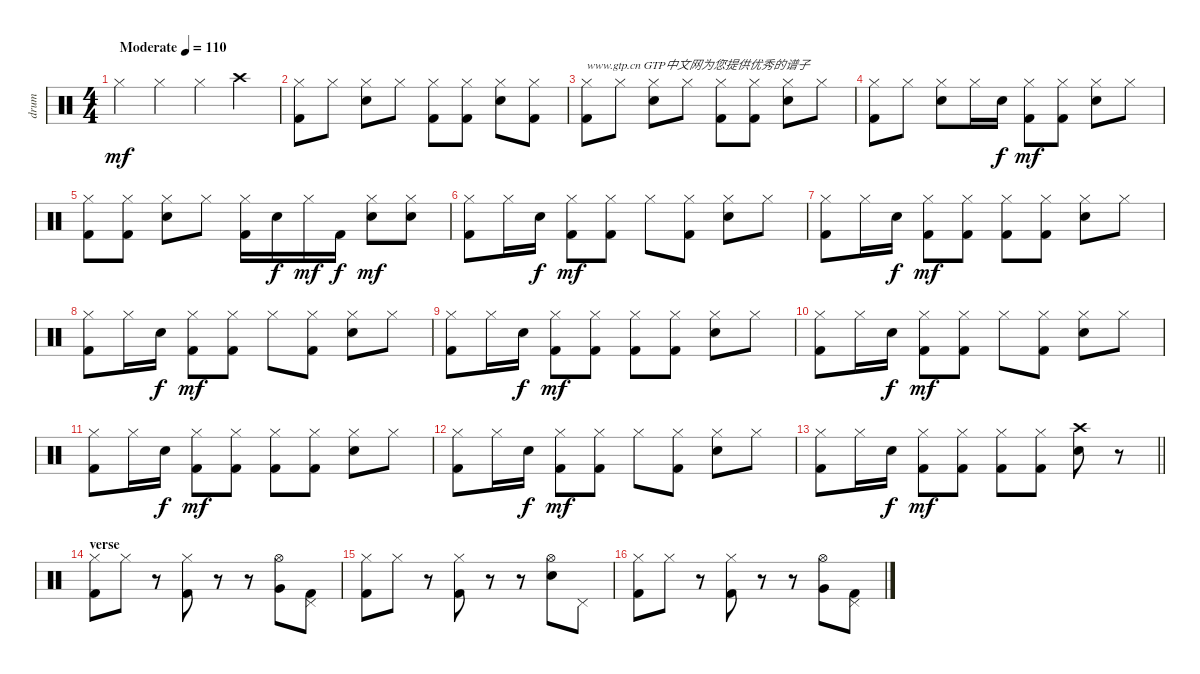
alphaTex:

\track ("drum" "drum") {instrument percussion}
\staff
\articulation defaults
\ts (4 4)
\tempo (110 "Moderate")
\clef neutral
\ks c "Hi-Hat (closed)".4{dy mf} "Hi-Hat (closed)".4 "Hi-Hat (closed)".4 "Crash high (hit)".4
|
("Hi-Hat (closed)" "Kick (hit) 2").8 "Hi-Hat (closed)".8 ("Hi-Hat (closed)" "Electric Snare (hit)").8 "Hi-Hat (closed)".8 ("Hi-Hat (closed)" "Kick (hit) 2").8 ("Hi-Hat (closed)" "Kick (hit) 2").8 ("Hi-Hat (closed)" "Electric Snare (hit)").8 ("Hi-Hat (closed)" "Kick (hit) 2").8 |
("Hi-Hat (closed)" "Kick (hit) 2").8{txt "www.gtp.cn GTP中文网为您提供优秀的谱子"} "Hi-Hat (closed)".8 ("Hi-Hat (closed)" "Electric Snare (hit)").8 "Hi-Hat (closed)".8 ("Hi-Hat (closed)" "Kick (hit) 2").8 ("Hi-Hat (closed)" "Kick (hit) 2").8 ("Hi-Hat (closed)" "Electric Snare (hit)").8 "Hi-Hat (closed)".8 |
("Hi-Hat (closed)" "Kick (hit) 2").8 "Hi-Hat (closed)".8 ("Hi-Hat (closed)" "Electric Snare (hit)").8 "Hi-Hat (closed)".16 "Electric Snare (hit)".16{dy f} ("Hi-Hat (closed)" "Kick (hit) 2").8{dy mf} ("Hi-Hat (closed)" "Kick (hit) 2").8 ("Hi-Hat (closed)" "Electric Snare (hit)").8 "Hi-Hat (closed)".8 |
("Hi-Hat (closed)" "Kick (hit) 2").8 ("Hi-Hat (closed)" "Kick (hit) 2").8 ("Hi-Hat (closed)" "Electric Snare (hit)").8 "Hi-Hat (closed)".8 ("Hi-Hat (closed)" "Kick (hit) 2").16 "Electric Snare (hit)".16{dy f} "Hi-Hat (closed)".16{dy mf} "Kick (hit) 2".16{dy f} ("Hi-Hat (closed)" "Electric Snare (hit)").8{dy mf} ("Hi-Hat (closed)" "Electric Snare (hit)").8 |
("Hi-Hat (closed)" "Kick (hit) 2").8 "Hi-Hat (closed)".16 "Electric Snare (hit)".16{dy f} ("Hi-Hat (closed)" "Kick (hit) 2").8{dy mf} ("Hi-Hat (closed)" "Kick (hit) 2").8 "Hi-Hat (closed)".8 ("Hi-Hat (closed)" "Kick (hit) 2").8 ("Hi-Hat (closed)" "Electric Snare (hit)").8 "Hi-Hat (closed)".8 |
("Hi-Hat (closed)" "Kick (hit) 2").8 "Hi-Hat (closed)".16 "Electric Snare (hit)".16{dy f} ("Hi-Hat (closed)" "Kick (hit) 2").8{dy mf} ("Hi-Hat (closed)" "Kick (hit) 2").8 ("Hi-Hat (closed)" "Kick (hit) 2").8 ("Hi-Hat (closed)" "Kick (hit) 2").8 ("Hi-Hat (closed)" "Electric Snare (hit)").8 "Hi-Hat (closed)".8 |
("Hi-Hat (closed)" "Kick (hit) 2").8 "Hi-Hat (closed)".16 "Electric Snare (hit)".16{dy f} ("Hi-Hat (closed)" "Kick (hit) 2").8{dy mf} ("Hi-Hat (closed)" "Kick (hit) 2").8 "Hi-Hat (closed)".8 ("Hi-Hat (closed)" "Kick (hit) 2").8 ("Hi-Hat (closed)" "Electric Snare (hit)").8 "Hi-Hat (closed)".8 |
("Hi-Hat (closed)" "Kick (hit) 2").8 "Hi-Hat (closed)".16 "Electric Snare (hit)".16{dy f} ("Hi-Hat (closed)" "Kick (hit) 2").8{dy mf} ("Hi-Hat (closed)" "Kick (hit) 2").8 ("Hi-Hat (closed)" "Kick (hit) 2").8 ("Hi-Hat (closed)" "Kick (hit) 2").8 ("Hi-Hat (closed)" "Electric Snare (hit)").8 "Hi-Hat (closed)".8 |
("Hi-Hat (closed)" "Kick (hit) 2").8 "Hi-Hat (closed)".16 "Electric Snare (hit)".16{dy f} ("Hi-Hat (closed)" "Kick (hit) 2").8{dy mf} ("Hi-Hat (closed)" "Kick (hit) 2").8 "Hi-Hat (closed)".8 ("Hi-Hat (closed)" "Kick (hit) 2").8 ("Hi-Hat (closed)" "Electric Snare (hit)").8 "Hi-Hat (closed)".8 |
("Hi-Hat (closed)" "Kick (hit) 2").8 "Hi-Hat (closed)".16 "Electric Snare (hit)".16{dy f} ("Hi-Hat (closed)" "Kick (hit) 2").8{dy mf} ("Hi-Hat (closed)" "Kick (hit) 2").8 ("Hi-Hat (closed)" "Kick (hit) 2").8 ("Hi-Hat (closed)" "Kick (hit) 2").8 ("Hi-Hat (closed)" "Electric Snare (hit)").8 "Hi-Hat (closed)".8 |
("Hi-Hat (closed)" "Kick (hit) 2").8 "Hi-Hat (closed)".16 "Electric Snare (hit)".16{dy f} ("Hi-Hat (closed)" "Kick (hit) 2").8{dy mf} ("Hi-Hat (closed)" "Kick (hit) 2").8 "Hi-Hat (closed)".8 ("Hi-Hat (closed)" "Kick (hit) 2").8 ("Hi-Hat (closed)" "Electric Snare (hit)").8 "Hi-Hat (closed)".8 |
\barLineRight lightlight
("Hi-Hat (closed)" "Kick (hit) 2").8 "Hi-Hat (closed)".16 "Electric Snare (hit)".16{dy f} ("Hi-Hat (closed)" "Kick (hit) 2").8{dy mf} ("Hi-Hat (closed)" "Kick (hit) 2").8 ("Hi-Hat (closed)" "Kick (hit) 2").8 ("Hi-Hat (closed)" "Kick (hit) 2").8 ("Crash high (hit)" "Electric Snare (hit)").8 r.8 |
\section ("" "verse")
("Hi-Hat (closed)" "Kick (hit) 2").8 "Hi-Hat (closed)".8 r.8 ("Hi-Hat (closed)" "Kick (hit) 2").8 r.8 r.8 ("Hi-Hat (open)" "Very Low Tom (hit)").8 ("Pedal Hi-Hat (hit)" "Kick (hit) 2").8 |
("Hi-Hat (closed)" "Kick (hit) 2").8 "Hi-Hat (closed)".8 r.8 ("Hi-Hat (closed)" "Kick (hit) 2").8 r.8 r.8 ("Hi-Hat (open)" "Electric Snare (hit)").8 "Pedal Hi-Hat (hit)".8 |
("Hi-Hat (closed)" "Kick (hit) 2").8 "Hi-Hat (closed)".8 r.8 ("Hi-Hat (closed)" "Kick (hit) 2").8 r.8 r.8 ("Hi-Hat (open)" "Very Low Tom (hit)").8 ("Pedal Hi-Hat (hit)" "Kick (hit) 2").8
